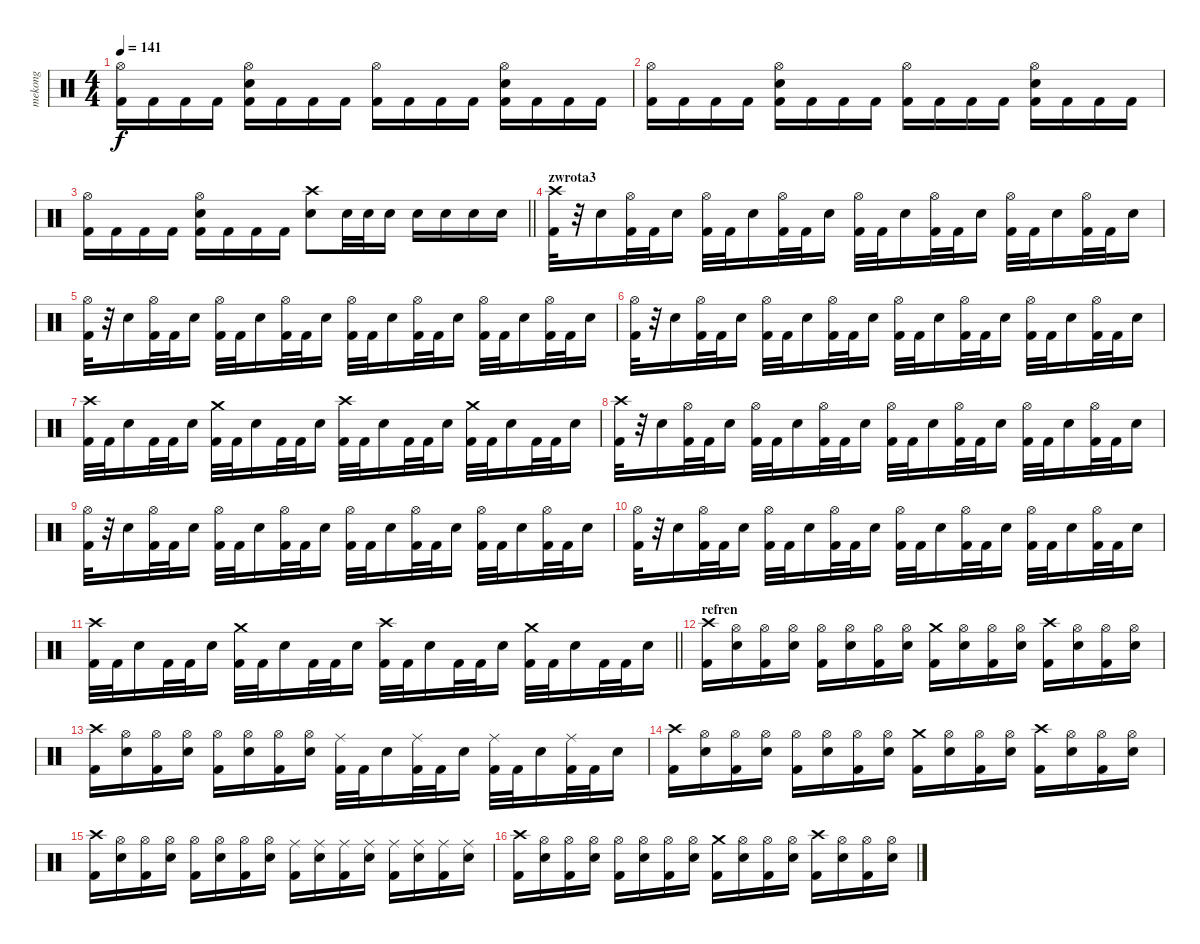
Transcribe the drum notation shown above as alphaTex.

\track ("mekong" "mekong") {instrument percussion}
\staff {score}
\articulation defaults
\ts (4 4)
\tempo 141
\clef neutral
\ks c
("Hi-Hat (open)" "Kick (hit) 2").16{dy f} "Kick (hit) 2".16 "Kick (hit) 2".16 "Kick (hit) 2".16 ("Electric Snare (hit)" "Hi-Hat (open)" "Kick (hit) 2").16 "Kick (hit) 2".16 "Kick (hit) 2".16 "Kick (hit) 2".16 ("Hi-Hat (open)" "Kick (hit) 2").16 "Kick (hit) 2".16 "Kick (hit) 2".16 "Kick (hit) 2".16 ("Electric Snare (hit)" "Hi-Hat (open)" "Kick (hit) 2").16 "Kick (hit) 2".16 "Kick (hit) 2".16 "Kick (hit) 2".16 |
("Hi-Hat (open)" "Kick (hit) 2").16 "Kick (hit) 2".16 "Kick (hit) 2".16 "Kick (hit) 2".16 ("Electric Snare (hit)" "Hi-Hat (open)" "Kick (hit) 2").16 "Kick (hit) 2".16 "Kick (hit) 2".16 "Kick (hit) 2".16 ("Hi-Hat (open)" "Kick (hit) 2").16 "Kick (hit) 2".16 "Kick (hit) 2".16 "Kick (hit) 2".16 ("Electric Snare (hit)" "Hi-Hat (open)" "Kick (hit) 2").16 "Kick (hit) 2".16 "Kick (hit) 2".16 "Kick (hit) 2".16 |
\barLineRight lightlight
("Hi-Hat (open)" "Kick (hit) 2").16 "Kick (hit) 2".16 "Kick (hit) 2".16 "Kick (hit) 2".16 ("Electric Snare (hit)" "Hi-Hat (open)" "Kick (hit) 2").16 "Kick (hit) 2".16 "Kick (hit) 2".16 "Kick (hit) 2".16 ("Crash high (hit)" "Electric Snare (hit)").8 "Electric Snare (hit)".32 "Electric Snare (hit)".32 "Electric Snare (hit)".16 "Electric Snare (hit)".16 "Electric Snare (hit)".16 "Electric Snare (hit)".16 "Electric Snare (hit)".16 |
\section ("" "zwrota3")
("Crash high (hit)" "Kick (hit) 2").32 r.32 "Electric Snare (hit)".16 ("Hi-Hat (open)" "Kick (hit) 2").32 "Kick (hit) 2".32 "Electric Snare (hit)".16 ("Hi-Hat (open)" "Kick (hit) 2").32 "Kick (hit) 2".32 "Electric Snare (hit)".16 ("Hi-Hat (open)" "Kick (hit) 2").32 "Kick (hit) 2".32 "Electric Snare (hit)".16 ("Hi-Hat (open)" "Kick (hit) 2").32 "Kick (hit) 2".32 "Electric Snare (hit)".16 ("Hi-Hat (open)" "Kick (hit) 2").32 "Kick (hit) 2".32 "Electric Snare (hit)".16 ("Hi-Hat (open)" "Kick (hit) 2").32 "Kick (hit) 2".32 "Electric Snare (hit)".16 ("Hi-Hat (open)" "Kick (hit) 2").32 "Kick (hit) 2".32 "Electric Snare (hit)".16 |
("Hi-Hat (open)" "Kick (hit) 2").32 r.32 "Electric Snare (hit)".16 ("Hi-Hat (open)" "Kick (hit) 2").32 "Kick (hit) 2".32 "Electric Snare (hit)".16 ("Hi-Hat (open)" "Kick (hit) 2").32 "Kick (hit) 2".32 "Electric Snare (hit)".16 ("Hi-Hat (open)" "Kick (hit) 2").32 "Kick (hit) 2".32 "Electric Snare (hit)".16 ("Hi-Hat (open)" "Kick (hit) 2").32 "Kick (hit) 2".32 "Electric Snare (hit)".16 ("Hi-Hat (open)" "Kick (hit) 2").32 "Kick (hit) 2".32 "Electric Snare (hit)".16 ("Hi-Hat (open)" "Kick (hit) 2").32 "Kick (hit) 2".32 "Electric Snare (hit)".16 ("Hi-Hat (open)" "Kick (hit) 2").32 "Kick (hit) 2".32 "Electric Snare (hit)".16 |
("Hi-Hat (open)" "Kick (hit) 2").32 r.32 "Electric Snare (hit)".16 ("Hi-Hat (open)" "Kick (hit) 2").32 "Kick (hit) 2".32 "Electric Snare (hit)".16 ("Hi-Hat (open)" "Kick (hit) 2").32 "Kick (hit) 2".32 "Electric Snare (hit)".16 ("Hi-Hat (open)" "Kick (hit) 2").32 "Kick (hit) 2".32 "Electric Snare (hit)".16 ("Hi-Hat (open)" "Kick (hit) 2").32 "Kick (hit) 2".32 "Electric Snare (hit)".16 ("Hi-Hat (open)" "Kick (hit) 2").32 "Kick (hit) 2".32 "Electric Snare (hit)".16 ("Hi-Hat (open)" "Kick (hit) 2").32 "Kick (hit) 2".32 "Electric Snare (hit)".16 ("Hi-Hat (open)" "Kick (hit) 2").32 "Kick (hit) 2".32 "Electric Snare (hit)".16 |
("Crash high (hit)" "Kick (hit) 2").32 "Kick (hit) 2".32 "Electric Snare (hit)".16 "Kick (hit) 2".32 "Kick (hit) 2".32 "Electric Snare (hit)".16 ("Crash medium (hit)" "Kick (hit) 2").32 "Kick (hit) 2".32 "Electric Snare (hit)".16 "Kick (hit) 2".32 "Kick (hit) 2".32 "Electric Snare (hit)".16 ("Crash high (hit)" "Kick (hit) 2").32 "Kick (hit) 2".32 "Electric Snare (hit)".16 "Kick (hit) 2".32 "Kick (hit) 2".32 "Electric Snare (hit)".16 ("Crash medium (hit)" "Kick (hit) 2").32 "Kick (hit) 2".32 "Electric Snare (hit)".16 "Kick (hit) 2".32 "Kick (hit) 2".32 "Electric Snare (hit)".16 |
("Crash high (hit)" "Kick (hit) 2").32 r.32 "Electric Snare (hit)".16 ("Hi-Hat (open)" "Kick (hit) 2").32 "Kick (hit) 2".32 "Electric Snare (hit)".16 ("Hi-Hat (open)" "Kick (hit) 2").32 "Kick (hit) 2".32 "Electric Snare (hit)".16 ("Hi-Hat (open)" "Kick (hit) 2").32 "Kick (hit) 2".32 "Electric Snare (hit)".16 ("Hi-Hat (open)" "Kick (hit) 2").32 "Kick (hit) 2".32 "Electric Snare (hit)".16 ("Hi-Hat (open)" "Kick (hit) 2").32 "Kick (hit) 2".32 "Electric Snare (hit)".16 ("Hi-Hat (open)" "Kick (hit) 2").32 "Kick (hit) 2".32 "Electric Snare (hit)".16 ("Hi-Hat (open)" "Kick (hit) 2").32 "Kick (hit) 2".32 "Electric Snare (hit)".16 |
("Hi-Hat (open)" "Kick (hit) 2").32 r.32 "Electric Snare (hit)".16 ("Hi-Hat (open)" "Kick (hit) 2").32 "Kick (hit) 2".32 "Electric Snare (hit)".16 ("Hi-Hat (open)" "Kick (hit) 2").32 "Kick (hit) 2".32 "Electric Snare (hit)".16 ("Hi-Hat (open)" "Kick (hit) 2").32 "Kick (hit) 2".32 "Electric Snare (hit)".16 ("Hi-Hat (open)" "Kick (hit) 2").32 "Kick (hit) 2".32 "Electric Snare (hit)".16 ("Hi-Hat (open)" "Kick (hit) 2").32 "Kick (hit) 2".32 "Electric Snare (hit)".16 ("Hi-Hat (open)" "Kick (hit) 2").32 "Kick (hit) 2".32 "Electric Snare (hit)".16 ("Hi-Hat (open)" "Kick (hit) 2").32 "Kick (hit) 2".32 "Electric Snare (hit)".16 |
("Hi-Hat (open)" "Kick (hit) 2").32 r.32 "Electric Snare (hit)".16 ("Hi-Hat (open)" "Kick (hit) 2").32 "Kick (hit) 2".32 "Electric Snare (hit)".16 ("Hi-Hat (open)" "Kick (hit) 2").32 "Kick (hit) 2".32 "Electric Snare (hit)".16 ("Hi-Hat (open)" "Kick (hit) 2").32 "Kick (hit) 2".32 "Electric Snare (hit)".16 ("Hi-Hat (open)" "Kick (hit) 2").32 "Kick (hit) 2".32 "Electric Snare (hit)".16 ("Hi-Hat (open)" "Kick (hit) 2").32 "Kick (hit) 2".32 "Electric Snare (hit)".16 ("Hi-Hat (open)" "Kick (hit) 2").32 "Kick (hit) 2".32 "Electric Snare (hit)".16 ("Hi-Hat (open)" "Kick (hit) 2").32 "Kick (hit) 2".32 "Electric Snare (hit)".16 |
\barLineRight lightlight
("Crash high (hit)" "Kick (hit) 2").32 "Kick (hit) 2".32 "Electric Snare (hit)".16 "Kick (hit) 2".32 "Kick (hit) 2".32 "Electric Snare (hit)".16 ("Crash medium (hit)" "Kick (hit) 2").32 "Kick (hit) 2".32 "Electric Snare (hit)".16 "Kick (hit) 2".32 "Kick (hit) 2".32 "Electric Snare (hit)".16 ("Crash high (hit)" "Kick (hit) 2").32 "Kick (hit) 2".32 "Electric Snare (hit)".16 "Kick (hit) 2".32 "Kick (hit) 2".32 "Electric Snare (hit)".16 ("Crash medium (hit)" "Kick (hit) 2").32 "Kick (hit) 2".32 "Electric Snare (hit)".16 "Kick (hit) 2".32 "Kick (hit) 2".32 "Electric Snare (hit)".16 |
\section ("" "refren")
("Crash high (hit)" "Kick (hit) 2").16 ("Electric Snare (hit)" "Hi-Hat (open)").16 ("Hi-Hat (open)" "Kick (hit) 2").16 ("Electric Snare (hit)" "Hi-Hat (open)").16 ("Hi-Hat (open)" "Kick (hit) 2").16 ("Electric Snare (hit)" "Hi-Hat (open)").16 ("Hi-Hat (open)" "Kick (hit) 2").16 ("Electric Snare (hit)" "Hi-Hat (open)").16 ("Crash medium (hit)" "Kick (hit) 2").16 ("Electric Snare (hit)" "Hi-Hat (open)").16 ("Hi-Hat (open)" "Kick (hit) 2").16 ("Electric Snare (hit)" "Hi-Hat (open)").16 ("Crash high (hit)" "Kick (hit) 2").16 ("Electric Snare (hit)" "Hi-Hat (open)").16 ("Hi-Hat (open)" "Kick (hit) 2").16 ("Electric Snare (hit)" "Hi-Hat (open)").16 |
("Crash high (hit)" "Kick (hit) 2").16 ("Electric Snare (hit)" "Hi-Hat (open)").16 ("Hi-Hat (open)" "Kick (hit) 2").16 ("Electric Snare (hit)" "Hi-Hat (open)").16 ("Hi-Hat (open)" "Kick (hit) 2").16 ("Electric Snare (hit)" "Hi-Hat (open)").16 ("Hi-Hat (open)" "Kick (hit) 2").16 ("Electric Snare (hit)" "Hi-Hat (open)").16 ("Ride (middle)" "Kick (hit) 2").32 "Kick (hit) 2".32 "Electric Snare (hit)".16 ("Ride (middle)" "Kick (hit) 2").32 "Kick (hit) 2".32 "Electric Snare (hit)".16 ("Ride (middle)" "Kick (hit) 2").32 "Kick (hit) 2".32 "Electric Snare (hit)".16 ("Ride (middle)" "Kick (hit) 2").32 "Kick (hit) 2".32 "Electric Snare (hit)".16 |
("Crash high (hit)" "Kick (hit) 2").16 ("Electric Snare (hit)" "Hi-Hat (open)").16 ("Hi-Hat (open)" "Kick (hit) 2").16 ("Electric Snare (hit)" "Hi-Hat (open)").16 ("Hi-Hat (open)" "Kick (hit) 2").16 ("Electric Snare (hit)" "Hi-Hat (open)").16 ("Hi-Hat (open)" "Kick (hit) 2").16 ("Electric Snare (hit)" "Hi-Hat (open)").16 ("Crash medium (hit)" "Kick (hit) 2").16 ("Electric Snare (hit)" "Hi-Hat (open)").16 ("Hi-Hat (open)" "Kick (hit) 2").16 ("Electric Snare (hit)" "Hi-Hat (open)").16 ("Crash high (hit)" "Kick (hit) 2").16 ("Electric Snare (hit)" "Hi-Hat (open)").16 ("Hi-Hat (open)" "Kick (hit) 2").16 ("Electric Snare (hit)" "Hi-Hat (open)").16 |
("Crash high (hit)" "Kick (hit) 2").16 ("Electric Snare (hit)" "Hi-Hat (open)").16 ("Hi-Hat (open)" "Kick (hit) 2").16 ("Electric Snare (hit)" "Hi-Hat (open)").16 ("Hi-Hat (open)" "Kick (hit) 2").16 ("Electric Snare (hit)" "Hi-Hat (open)").16 ("Hi-Hat (open)" "Kick (hit) 2").16 ("Electric Snare (hit)" "Hi-Hat (open)").16 ("Ride (middle)" "Kick (hit) 2").16 ("Electric Snare (hit)" "Ride (middle)").16 ("Ride (middle)" "Kick (hit) 2").16 ("Electric Snare (hit)" "Ride (middle)").16 ("Ride (middle)" "Kick (hit) 2").16 ("Electric Snare (hit)" "Ride (middle)").16 ("Ride (middle)" "Kick (hit) 2").16 ("Electric Snare (hit)" "Ride (middle)").16 |
("Crash high (hit)" "Kick (hit) 2").16 ("Electric Snare (hit)" "Hi-Hat (open)").16 ("Hi-Hat (open)" "Kick (hit) 2").16 ("Electric Snare (hit)" "Hi-Hat (open)").16 ("Hi-Hat (open)" "Kick (hit) 2").16 ("Electric Snare (hit)" "Hi-Hat (open)").16 ("Hi-Hat (open)" "Kick (hit) 2").16 ("Electric Snare (hit)" "Hi-Hat (open)").16 ("Crash medium (hit)" "Kick (hit) 2").16 ("Electric Snare (hit)" "Hi-Hat (open)").16 ("Hi-Hat (open)" "Kick (hit) 2").16 ("Electric Snare (hit)" "Hi-Hat (open)").16 ("Crash high (hit)" "Kick (hit) 2").16 ("Electric Snare (hit)" "Hi-Hat (open)").16 ("Hi-Hat (open)" "Kick (hit) 2").16 ("Electric Snare (hit)" "Hi-Hat (open)").16
